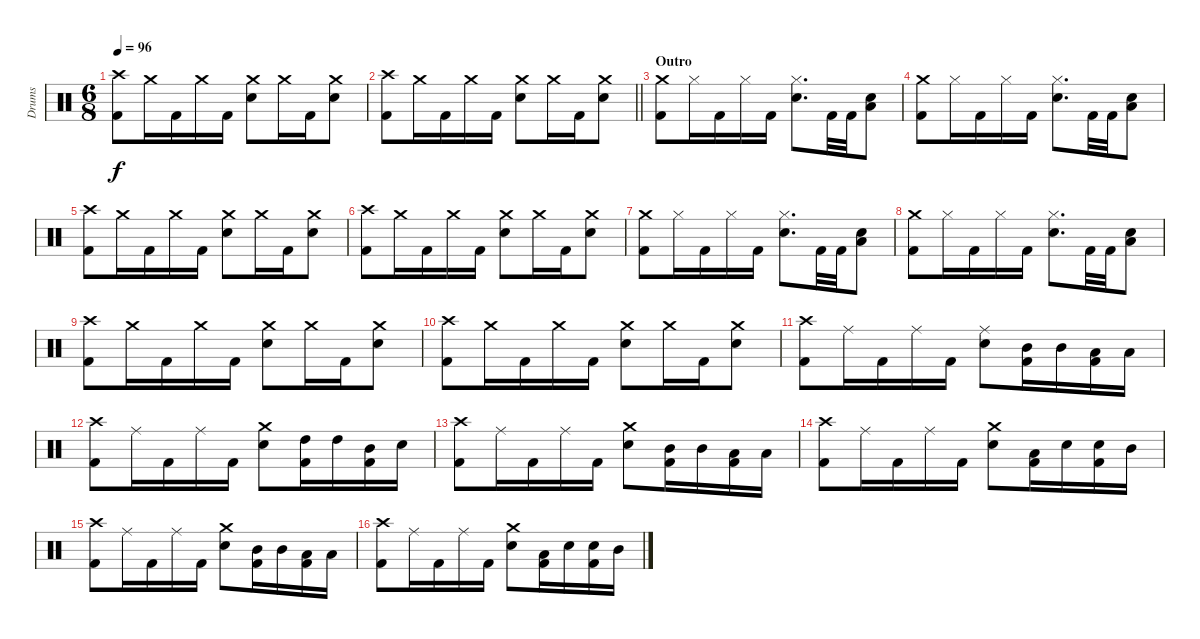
\track ("Drums" "Drums") {instrument percussion}
\staff {score}
\articulation defaults
\ts (6 8)
\tempo 96
\clef neutral
\ks c
("Crash high (hit)" "Kick (hit) 2").8{dy f} "Crash medium (hit)".16 "Kick (hit) 2".16 "Crash medium (hit)".16 "Kick (hit) 2".16 ("Snare (hit) 2" "Crash medium (hit)").8 "Crash medium (hit)".16 "Kick (hit) 2".16 ("Crash medium (hit)" "Snare (hit) 2").8 |
\barLineRight lightlight
("Crash high (hit)" "Kick (hit) 2").8 "Crash medium (hit)".16 "Kick (hit) 2".16 "Crash medium (hit)".16 "Kick (hit) 2".16 ("Snare (hit) 2" "Crash medium (hit)").8 "Crash medium (hit)".16 "Kick (hit) 2".16 ("Crash medium (hit)" "Snare (hit) 2").8 |
\section ("" "Outro")
("Crash medium (hit)" "Kick (hit) 2").8 "Hi-Hat (closed)".16 "Kick (hit) 2".16 "Hi-Hat (closed)".16 "Kick (hit) 2".16 ("Hi-Hat (closed)" "Snare (hit) 2").8{d} "Kick (hit) 2".32 "Kick (hit) 2".32 ("Snare (hit) 2" "Low Tom (hit)").8 |
("Crash medium (hit)" "Kick (hit) 2").8 "Hi-Hat (closed)".16 "Kick (hit) 2".16 "Hi-Hat (closed)".16 "Kick (hit) 2".16 ("Hi-Hat (closed)" "Snare (hit) 2").8{d} "Kick (hit) 2".32 "Kick (hit) 2".32 ("Snare (hit) 2" "Low Tom (hit)").8 |
("Crash high (hit)" "Kick (hit) 2").8 "Crash medium (hit)".16 "Kick (hit) 2".16 "Crash medium (hit)".16 "Kick (hit) 2".16 ("Snare (hit) 2" "Crash medium (hit)").8 "Crash medium (hit)".16 "Kick (hit) 2".16 ("Crash medium (hit)" "Snare (hit) 2").8 |
("Crash high (hit)" "Kick (hit) 2").8 "Crash medium (hit)".16 "Kick (hit) 2".16 "Crash medium (hit)".16 "Kick (hit) 2".16 ("Snare (hit) 2" "Crash medium (hit)").8 "Crash medium (hit)".16 "Kick (hit) 2".16 ("Crash medium (hit)" "Snare (hit) 2").8 |
("Crash medium (hit)" "Kick (hit) 2").8 "Hi-Hat (closed)".16 "Kick (hit) 2".16 "Hi-Hat (closed)".16 "Kick (hit) 2".16 ("Hi-Hat (closed)" "Snare (hit) 2").8{d} "Kick (hit) 2".32 "Kick (hit) 2".32 ("Snare (hit) 2" "Low Tom (hit)").8 |
("Crash medium (hit)" "Kick (hit) 2").8 "Hi-Hat (closed)".16 "Kick (hit) 2".16 "Hi-Hat (closed)".16 "Kick (hit) 2".16 ("Hi-Hat (closed)" "Snare (hit) 2").8{d} "Kick (hit) 2".32 "Kick (hit) 2".32 ("Snare (hit) 2" "Low Tom (hit)").8 |
("Crash high (hit)" "Kick (hit) 2").8 "Crash medium (hit)".16 "Kick (hit) 2".16 "Crash medium (hit)".16 "Kick (hit) 2".16 ("Snare (hit) 2" "Crash medium (hit)").8 "Crash medium (hit)".16 "Kick (hit) 2".16 ("Crash medium (hit)" "Snare (hit) 2").8 |
("Crash high (hit)" "Kick (hit) 2").8 "Crash medium (hit)".16 "Kick (hit) 2".16 "Crash medium (hit)".16 "Kick (hit) 2".16 ("Snare (hit) 2" "Crash medium (hit)").8 "Crash medium (hit)".16 "Kick (hit) 2".16 ("Crash medium (hit)" "Snare (hit) 2").8 |
("Kick (hit) 2" "Crash high (hit)").8 "Ride (middle)".16 "Kick (hit) 2".16 "Ride (middle)".16 "Kick (hit) 2".16 ("Snare (hit) 2" "Ride (middle)").8 ("Kick (hit) 2" "Mid Tom (hit)").16 "Mid Tom (hit)".16 ("Low Tom (hit)" "Kick (hit) 2").16 "Low Tom (hit)".16 |
("Kick (hit) 2" "Crash high (hit)").8 "Ride (middle)".16 "Kick (hit) 2".16 "Ride (middle)".16 "Kick (hit) 2".16 ("Snare (hit) 2" "Crash medium (hit)").8 ("Kick (hit) 2" "High Tom (hit)").16 "High Tom (hit)".16 ("Mid Tom (hit)" "Kick (hit) 2").16 "Snare (hit) 2".16 |
("Kick (hit) 2" "Crash high (hit)").8 "Ride (middle)".16 "Kick (hit) 2".16 "Ride (middle)".16 "Kick (hit) 2".16 ("Snare (hit) 2" "Crash medium (hit)").8 ("Kick (hit) 2" "Mid Tom (hit)").16 "Mid Tom (hit)".16 ("Low Tom (hit)" "Kick (hit) 2").16 "Low Tom (hit)".16 |
("Kick (hit) 2" "Crash high (hit)").8 "Ride (middle)".16 "Kick (hit) 2".16 "Ride (middle)".16 "Kick (hit) 2".16 ("Snare (hit) 2" "Crash medium (hit)").8 ("Low Tom (hit)" "Kick (hit) 2").16 "Snare (hit) 2".16 ("Snare (hit) 2" "Kick (hit) 2").16 "Mid Tom (hit)".16 |
("Kick (hit) 2" "Crash high (hit)").8 "Ride (middle)".16 "Kick (hit) 2".16 "Ride (middle)".16 "Kick (hit) 2".16 ("Snare (hit) 2" "Crash medium (hit)").8 ("Kick (hit) 2" "Mid Tom (hit)").16 "Mid Tom (hit)".16 ("Low Tom (hit)" "Kick (hit) 2").16 "Low Tom (hit)".16 |
("Kick (hit) 2" "Crash high (hit)").8 "Ride (middle)".16 "Kick (hit) 2".16 "Ride (middle)".16 "Kick (hit) 2".16 ("Snare (hit) 2" "Crash medium (hit)").8 ("Low Tom (hit)" "Kick (hit) 2").16 "Snare (hit) 2".16 ("Snare (hit) 2" "Kick (hit) 2").16 "Mid Tom (hit)".16
